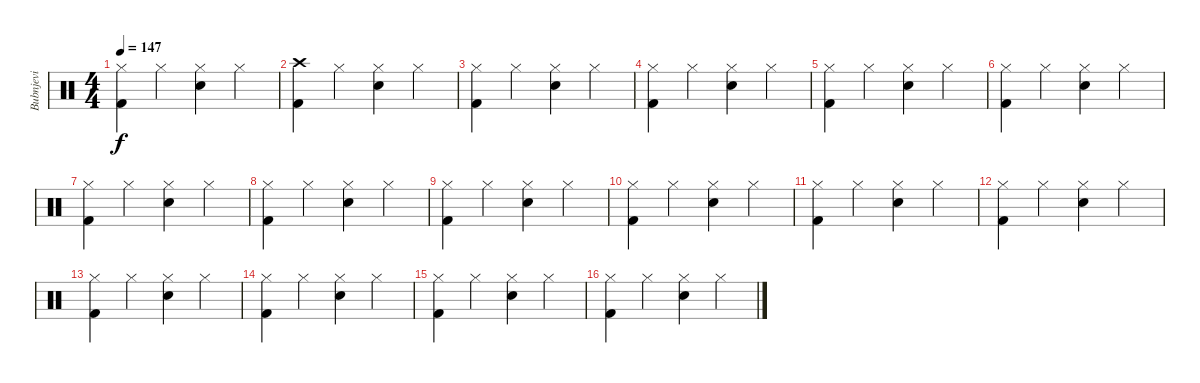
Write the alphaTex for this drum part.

\track ("Bubnjevi" "Bubnjevi") {instrument percussion}
\staff {score}
\articulation defaults
\ts (4 4)
\tempo 147
\clef neutral
\ks c
("Hi-Hat (closed)" "Kick (hit) 2").4{dy f} "Hi-Hat (closed)".4 ("Hi-Hat (closed)" "Electric Snare (hit)").4 "Hi-Hat (closed)".4 |
("Crash high (hit)" "Kick (hit) 2").4 "Hi-Hat (closed)".4 ("Hi-Hat (closed)" "Electric Snare (hit)").4 "Hi-Hat (closed)".4 |
("Hi-Hat (closed)" "Kick (hit) 2").4 "Hi-Hat (closed)".4 ("Hi-Hat (closed)" "Electric Snare (hit)").4 "Hi-Hat (closed)".4 |
("Hi-Hat (closed)" "Kick (hit) 2").4 "Hi-Hat (closed)".4 ("Hi-Hat (closed)" "Electric Snare (hit)").4 "Hi-Hat (closed)".4 |
("Hi-Hat (closed)" "Kick (hit) 2").4 "Hi-Hat (closed)".4 ("Hi-Hat (closed)" "Electric Snare (hit)").4 "Hi-Hat (closed)".4 |
("Hi-Hat (closed)" "Kick (hit) 2").4 "Hi-Hat (closed)".4 ("Hi-Hat (closed)" "Electric Snare (hit)").4 "Hi-Hat (closed)".4 |
("Hi-Hat (closed)" "Kick (hit) 2").4 "Hi-Hat (closed)".4 ("Hi-Hat (closed)" "Electric Snare (hit)").4 "Hi-Hat (closed)".4 |
("Hi-Hat (closed)" "Kick (hit) 2").4 "Hi-Hat (closed)".4 ("Hi-Hat (closed)" "Electric Snare (hit)").4 "Hi-Hat (closed)".4 |
("Hi-Hat (closed)" "Kick (hit) 2").4 "Hi-Hat (closed)".4 ("Hi-Hat (closed)" "Electric Snare (hit)").4 "Hi-Hat (closed)".4 |
("Hi-Hat (closed)" "Kick (hit) 2").4 "Hi-Hat (closed)".4 ("Hi-Hat (closed)" "Electric Snare (hit)").4 "Hi-Hat (closed)".4 |
("Hi-Hat (closed)" "Kick (hit) 2").4 "Hi-Hat (closed)".4 ("Hi-Hat (closed)" "Electric Snare (hit)").4 "Hi-Hat (closed)".4 |
("Hi-Hat (closed)" "Kick (hit) 2").4 "Hi-Hat (closed)".4 ("Hi-Hat (closed)" "Electric Snare (hit)").4 "Hi-Hat (closed)".4 |
("Hi-Hat (closed)" "Kick (hit) 2").4 "Hi-Hat (closed)".4 ("Hi-Hat (closed)" "Electric Snare (hit)").4 "Hi-Hat (closed)".4 |
("Hi-Hat (closed)" "Kick (hit) 2").4 "Hi-Hat (closed)".4 ("Hi-Hat (closed)" "Electric Snare (hit)").4 "Hi-Hat (closed)".4 |
("Hi-Hat (closed)" "Kick (hit) 2").4 "Hi-Hat (closed)".4 ("Hi-Hat (closed)" "Electric Snare (hit)").4 "Hi-Hat (closed)".4 |
("Hi-Hat (closed)" "Kick (hit) 2").4 "Hi-Hat (closed)".4 ("Hi-Hat (closed)" "Electric Snare (hit)").4 "Hi-Hat (closed)".4
